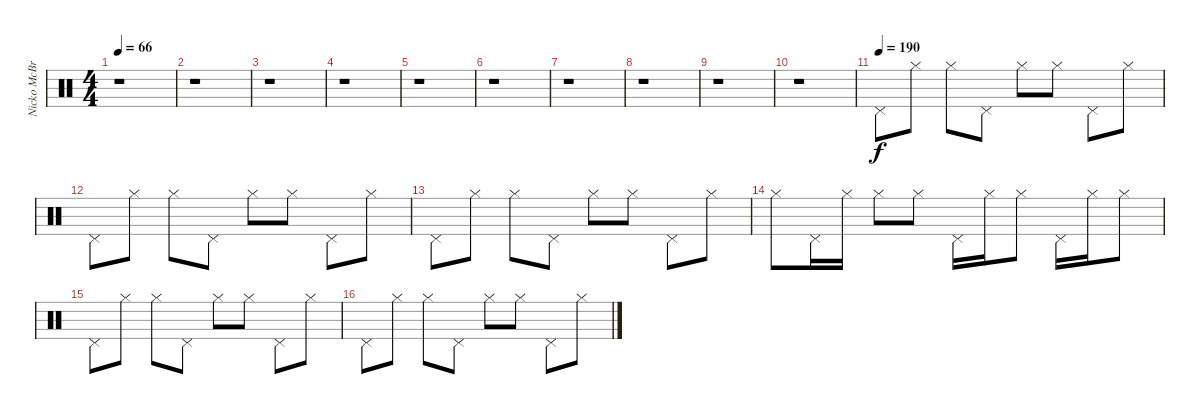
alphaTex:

\track ("Nicko McBrain" "Nicko McBr") {instrument percussion}
\staff {score}
\articulation defaults
\ts (4 4)
\tempo 66
\clef neutral
\ks c
r.1{dy f} |
r.1 |
r.1 |
r.1 |
r.1 |
r.1 |
r.1 |
r.1 |
r.1 |
r.1 |
\tempo (190)
"Pedal Hi-Hat (hit)".8 "Hi-Hat (closed)".8 "Hi-Hat (closed)".8 "Pedal Hi-Hat (hit)".8 "Hi-Hat (closed)".8 "Hi-Hat (closed)".8 "Pedal Hi-Hat (hit)".8 "Hi-Hat (closed)".8 |
"Pedal Hi-Hat (hit)".8 "Hi-Hat (closed)".8 "Hi-Hat (closed)".8 "Pedal Hi-Hat (hit)".8 "Hi-Hat (closed)".8 "Hi-Hat (closed)".8 "Pedal Hi-Hat (hit)".8 "Hi-Hat (closed)".8 |
"Pedal Hi-Hat (hit)".8 "Hi-Hat (closed)".8 "Hi-Hat (closed)".8 "Pedal Hi-Hat (hit)".8 "Hi-Hat (closed)".8 "Hi-Hat (closed)".8 "Pedal Hi-Hat (hit)".8 "Hi-Hat (closed)".8 |
"Hi-Hat (closed)".8 "Pedal Hi-Hat (hit)".16 "Hi-Hat (closed)".16 "Hi-Hat (closed)".8 "Hi-Hat (closed)".8 "Pedal Hi-Hat (hit)".16 "Hi-Hat (closed)".16 "Hi-Hat (closed)".8 "Pedal Hi-Hat (hit)".16 "Hi-Hat (closed)".16 "Hi-Hat (closed)".8 |
"Pedal Hi-Hat (hit)".8 "Hi-Hat (closed)".8 "Hi-Hat (closed)".8 "Pedal Hi-Hat (hit)".8 "Hi-Hat (closed)".8 "Hi-Hat (closed)".8 "Pedal Hi-Hat (hit)".8 "Hi-Hat (closed)".8 |
"Pedal Hi-Hat (hit)".8 "Hi-Hat (closed)".8 "Hi-Hat (closed)".8 "Pedal Hi-Hat (hit)".8 "Hi-Hat (closed)".8 "Hi-Hat (closed)".8 "Pedal Hi-Hat (hit)".8 "Hi-Hat (closed)".8
